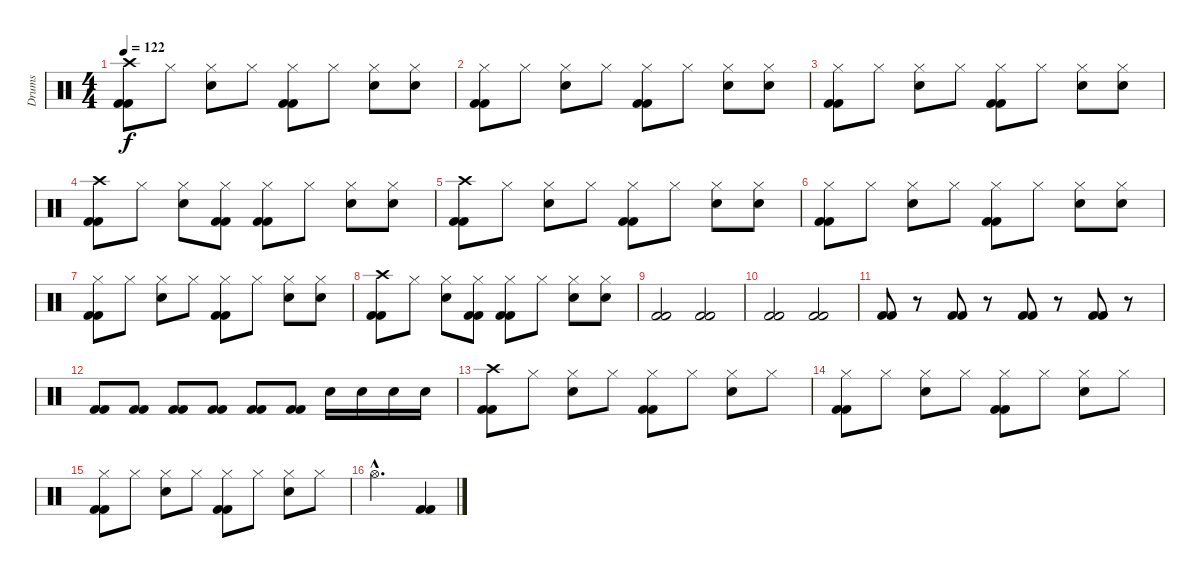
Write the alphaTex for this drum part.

\track ("Drums" "Drums") {instrument percussion}
\staff {score}
\articulation defaults
\ts (4 4)
\tempo 122
\clef neutral
\ks c
("Crash high (hit)" "Kick (hit) 2" "Kick (hit) 2").8{dy f} "Hi-Hat (closed)".8 ("Hi-Hat (closed)" "Snare (hit) 2").8 "Hi-Hat (closed)".8 ("Hi-Hat (closed)" "Kick (hit) 2" "Kick (hit) 2").8 "Hi-Hat (closed)".8 ("Hi-Hat (closed)" "Snare (hit) 2").8 ("Hi-Hat (closed)" "Snare (hit) 2").8 |
("Hi-Hat (closed)" "Kick (hit) 2" "Kick (hit) 2").8 "Hi-Hat (closed)".8 ("Hi-Hat (closed)" "Snare (hit) 2").8 "Hi-Hat (closed)".8 ("Hi-Hat (closed)" "Kick (hit) 2" "Kick (hit) 2").8 "Hi-Hat (closed)".8 ("Hi-Hat (closed)" "Snare (hit) 2").8 ("Hi-Hat (closed)" "Snare (hit) 2").8 |
("Hi-Hat (closed)" "Kick (hit) 2" "Kick (hit) 2").8 "Hi-Hat (closed)".8 ("Hi-Hat (closed)" "Snare (hit) 2").8 "Hi-Hat (closed)".8 ("Hi-Hat (closed)" "Kick (hit) 2" "Kick (hit) 2").8 "Hi-Hat (closed)".8 ("Hi-Hat (closed)" "Snare (hit) 2").8 ("Hi-Hat (closed)" "Snare (hit) 2").8 |
("Crash high (hit)" "Kick (hit) 2" "Kick (hit) 2").8 "Hi-Hat (closed)".8 ("Hi-Hat (closed)" "Snare (hit) 2").8 ("Hi-Hat (closed)" "Kick (hit) 2" "Kick (hit) 2").8 ("Hi-Hat (closed)" "Kick (hit) 2" "Kick (hit) 2").8 "Hi-Hat (closed)".8 ("Hi-Hat (closed)" "Snare (hit) 2").8 ("Hi-Hat (closed)" "Snare (hit) 2").8 |
("Crash high (hit)" "Kick (hit) 2" "Kick (hit) 2").8 "Hi-Hat (closed)".8 ("Hi-Hat (closed)" "Snare (hit) 2").8 "Hi-Hat (closed)".8 ("Hi-Hat (closed)" "Kick (hit) 2" "Kick (hit) 2").8 "Hi-Hat (closed)".8 ("Hi-Hat (closed)" "Snare (hit) 2").8 ("Hi-Hat (closed)" "Snare (hit) 2").8 |
("Hi-Hat (closed)" "Kick (hit) 2" "Kick (hit) 2").8 "Hi-Hat (closed)".8 ("Hi-Hat (closed)" "Snare (hit) 2").8 "Hi-Hat (closed)".8 ("Hi-Hat (closed)" "Kick (hit) 2" "Kick (hit) 2").8 "Hi-Hat (closed)".8 ("Hi-Hat (closed)" "Snare (hit) 2").8 ("Hi-Hat (closed)" "Snare (hit) 2").8 |
("Hi-Hat (closed)" "Kick (hit) 2" "Kick (hit) 2").8 "Hi-Hat (closed)".8 ("Hi-Hat (closed)" "Snare (hit) 2").8 "Hi-Hat (closed)".8 ("Hi-Hat (closed)" "Kick (hit) 2" "Kick (hit) 2").8 "Hi-Hat (closed)".8 ("Hi-Hat (closed)" "Snare (hit) 2").8 ("Hi-Hat (closed)" "Snare (hit) 2").8 |
("Crash high (hit)" "Kick (hit) 2" "Kick (hit) 2").8 "Hi-Hat (closed)".8 ("Hi-Hat (closed)" "Snare (hit) 2").8 ("Hi-Hat (closed)" "Kick (hit) 2" "Kick (hit) 2").8 ("Hi-Hat (closed)" "Kick (hit) 2" "Kick (hit) 2").8 "Hi-Hat (closed)".8 ("Hi-Hat (closed)" "Snare (hit) 2").8 ("Hi-Hat (closed)" "Snare (hit) 2").8 |
("Kick (hit) 2" "Kick (hit) 2").2 ("Kick (hit) 2" "Kick (hit) 2").2 |
("Kick (hit) 2" "Kick (hit) 2").2 ("Kick (hit) 2" "Kick (hit) 2").2 |
("Kick (hit) 2" "Kick (hit) 2").8 r.8 ("Kick (hit) 2" "Kick (hit) 2").8 r.8 ("Kick (hit) 2" "Kick (hit) 2").8 r.8 ("Kick (hit) 2" "Kick (hit) 2").8 r.8 |
("Kick (hit) 2" "Kick (hit) 2").8 ("Kick (hit) 2" "Kick (hit) 2").8 ("Kick (hit) 2" "Kick (hit) 2").8 ("Kick (hit) 2" "Kick (hit) 2").8 ("Kick (hit) 2" "Kick (hit) 2").8 ("Kick (hit) 2" "Kick (hit) 2").8 "Snare (hit) 2".16 "Snare (hit) 2".16 "Snare (hit) 2".16 "Snare (hit) 2".16 |
("Crash high (hit)" "Kick (hit) 2" "Kick (hit) 2").8 "Hi-Hat (closed)".8 ("Hi-Hat (closed)" "Snare (hit) 2").8 "Hi-Hat (closed)".8 ("Hi-Hat (closed)" "Kick (hit) 2" "Kick (hit) 2").8 "Hi-Hat (closed)".8 ("Hi-Hat (closed)" "Snare (hit) 2").8 "Hi-Hat (closed)".8 |
("Hi-Hat (closed)" "Kick (hit) 2" "Kick (hit) 2").8 "Hi-Hat (closed)".8 ("Hi-Hat (closed)" "Snare (hit) 2").8 "Hi-Hat (closed)".8 ("Hi-Hat (closed)" "Kick (hit) 2" "Kick (hit) 2").8 "Hi-Hat (closed)".8 ("Hi-Hat (closed)" "Snare (hit) 2").8 "Hi-Hat (closed)".8 |
("Hi-Hat (closed)" "Kick (hit) 2" "Kick (hit) 2").8 "Hi-Hat (closed)".8 ("Hi-Hat (closed)" "Snare (hit) 2").8 "Hi-Hat (closed)".8 ("Hi-Hat (closed)" "Kick (hit) 2" "Kick (hit) 2").8 "Hi-Hat (closed)".8 ("Hi-Hat (closed)" "Snare (hit) 2").8 "Hi-Hat (closed)".8 |
"Hi-Hat (open)"{hac}.2{d} ("Kick (hit) 2" "Kick (hit) 2").4
